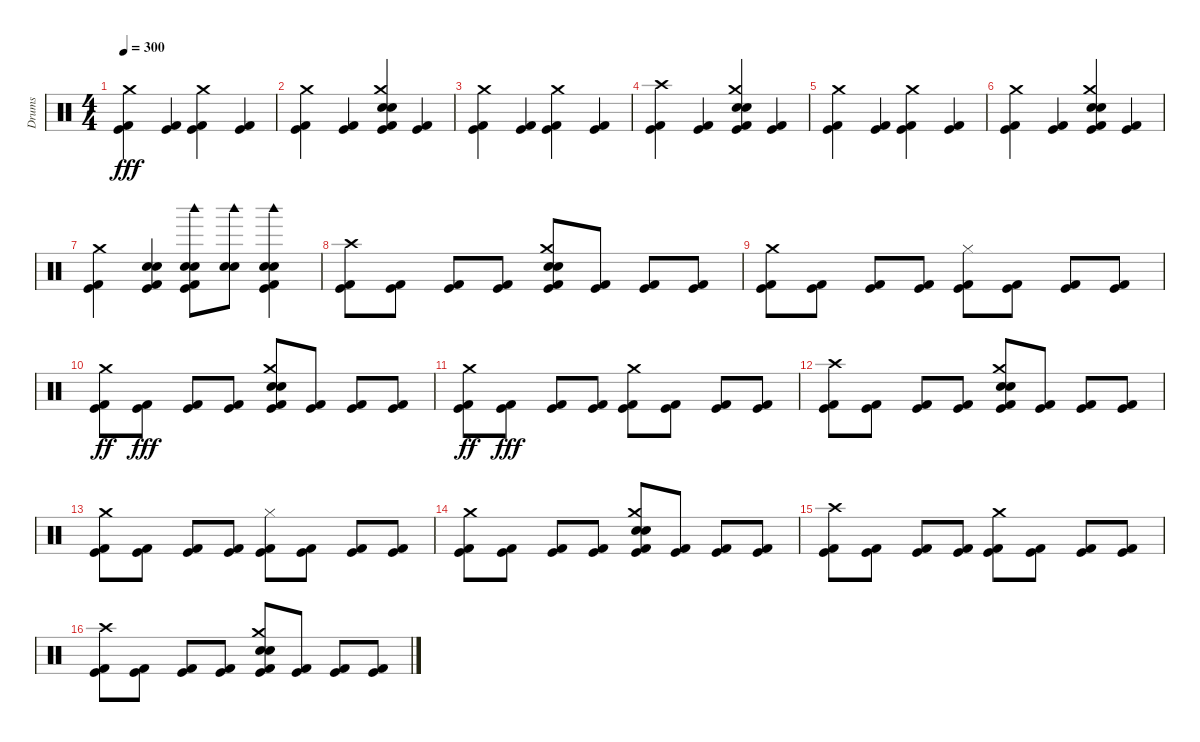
\track ("Drums" "Drums") {instrument percussion}
\staff {score}
\articulation defaults
\ts (4 4)
\tempo 300
\clef neutral
\ks c
("Kick (hit) 2" "Kick (hit)" "Crash medium (hit)").4{dy fff} ("Kick (hit) 2" "Kick (hit)").4 ("Kick (hit) 2" "Kick (hit)" "Crash medium (hit)").4 ("Kick (hit) 2" "Kick (hit)").4 |
("Kick (hit) 2" "Crash medium (hit)" "Kick (hit)").4 ("Kick (hit) 2" "Kick (hit)").4 ("Kick (hit) 2" "Electric Snare (hit)" "Snare (hit) 2" "Crash medium (hit)" "Kick (hit)").4 ("Kick (hit) 2" "Kick (hit)").4 |
("Kick (hit) 2" "Kick (hit)" "Crash medium (hit)").4 ("Kick (hit) 2" "Kick (hit)").4 ("Kick (hit) 2" "Kick (hit)" "Crash medium (hit)").4 ("Kick (hit) 2" "Kick (hit)").4 |
("Kick (hit) 2" "Crash high (hit)" "Kick (hit)").4 ("Kick (hit) 2" "Kick (hit)").4 ("Kick (hit) 2" "Electric Snare (hit)" "Crash medium (hit)" "Snare (hit) 2" "Kick (hit)").4 ("Kick (hit) 2" "Kick (hit)").4 |
("Kick (hit) 2" "Crash medium (hit)" "Kick (hit)").4 ("Kick (hit) 2" "Kick (hit)").4 ("Kick (hit) 2" "Crash medium (hit)" "Kick (hit)").4 ("Kick (hit) 2" "Kick (hit)").4 |
("Kick (hit) 2" "Kick (hit)" "Crash medium (hit)").4 ("Kick (hit) 2" "Kick (hit)").4 ("Kick (hit) 2" "Snare (hit) 2" "Electric Snare (hit)" "Crash medium (hit)" "Kick (hit)").4 ("Kick (hit) 2" "Kick (hit)").4 |
("Kick (hit) 2" "Kick (hit)" "Crash medium (hit)").4 ("Kick (hit) 2" "Electric Snare (hit)" "Snare (hit) 2" "Kick (hit)").4 ("Kick (hit) 2" "Woodblock high (hit)" "Snare (hit) 2" "Electric Snare (hit)" "Kick (hit)").8 ("Woodblock high (hit)" "Snare (hit) 2" "Electric Snare (hit)").8 ("Kick (hit) 2" "Woodblock high (hit)" "Snare (hit) 2" "Electric Snare (hit)" "Kick (hit)").4 |
("Kick (hit) 2" "Kick (hit)" "Crash high (hit)").8 ("Kick (hit) 2" "Kick (hit)").8 ("Kick (hit) 2" "Kick (hit)").8 ("Kick (hit) 2" "Kick (hit)").8 ("Kick (hit) 2" "Snare (hit) 2" "Electric Snare (hit)" "Crash medium (hit)" "Kick (hit)").8 ("Kick (hit) 2" "Kick (hit)").8 ("Kick (hit) 2" "Kick (hit)").8 ("Kick (hit) 2" "Kick (hit)").8 |
("Kick (hit) 2" "Crash medium (hit)" "Kick (hit)").8 ("Kick (hit) 2" "Kick (hit)").8 ("Kick (hit) 2" "Kick (hit)").8 ("Kick (hit) 2" "Kick (hit)").8 ("Kick (hit) 2" "Kick (hit)" "Hi-Hat (closed)").8 ("Kick (hit) 2" "Kick (hit)").8 ("Kick (hit) 2" "Kick (hit)").8 ("Kick (hit) 2" "Kick (hit)").8 |
("Kick (hit) 2" "Kick (hit)" "Crash medium (hit)").8{dy ff} ("Kick (hit) 2" "Kick (hit)").8{dy fff} ("Kick (hit) 2" "Kick (hit)").8 ("Kick (hit) 2" "Kick (hit)").8 ("Kick (hit) 2" "Crash medium (hit)" "Snare (hit) 2" "Electric Snare (hit)" "Kick (hit)").8 ("Kick (hit) 2" "Kick (hit)").8 ("Kick (hit) 2" "Kick (hit)").8 ("Kick (hit) 2" "Kick (hit)").8 |
("Kick (hit) 2" "Kick (hit)" "Crash medium (hit)").8{dy ff} ("Kick (hit) 2" "Kick (hit)").8{dy fff} ("Kick (hit) 2" "Kick (hit)").8 ("Kick (hit) 2" "Kick (hit)").8 ("Kick (hit) 2" "Crash medium (hit)" "Kick (hit)").8 ("Kick (hit) 2" "Kick (hit)").8 ("Kick (hit) 2" "Kick (hit)").8 ("Kick (hit) 2" "Kick (hit)").8 |
("Kick (hit) 2" "Kick (hit)" "Crash high (hit)").8 ("Kick (hit) 2" "Kick (hit)").8 ("Kick (hit) 2" "Kick (hit)").8 ("Kick (hit) 2" "Kick (hit)").8 ("Kick (hit) 2" "Snare (hit) 2" "Crash medium (hit)" "Electric Snare (hit)" "Kick (hit)").8 ("Kick (hit) 2" "Kick (hit)").8 ("Kick (hit) 2" "Kick (hit)").8 ("Kick (hit) 2" "Kick (hit)").8 |
("Kick (hit) 2" "Crash medium (hit)" "Kick (hit)").8 ("Kick (hit) 2" "Kick (hit)").8 ("Kick (hit) 2" "Kick (hit)").8 ("Kick (hit) 2" "Kick (hit)").8 ("Kick (hit) 2" "Kick (hit)" "Hi-Hat (closed)").8 ("Kick (hit) 2" "Kick (hit)").8 ("Kick (hit) 2" "Kick (hit)").8 ("Kick (hit) 2" "Kick (hit)").8 |
("Kick (hit) 2" "Crash medium (hit)" "Kick (hit)").8 ("Kick (hit) 2" "Kick (hit)").8 ("Kick (hit) 2" "Kick (hit)").8 ("Kick (hit) 2" "Kick (hit)").8 ("Kick (hit) 2" "Crash medium (hit)" "Electric Snare (hit)" "Snare (hit) 2" "Kick (hit)").8 ("Kick (hit) 2" "Kick (hit)").8 ("Kick (hit) 2" "Kick (hit)").8 ("Kick (hit) 2" "Kick (hit)").8 |
("Kick (hit) 2" "Kick (hit)" "Crash high (hit)").8 ("Kick (hit) 2" "Kick (hit)").8 ("Kick (hit) 2" "Kick (hit)").8 ("Kick (hit) 2" "Kick (hit)").8 ("Kick (hit) 2" "Crash medium (hit)" "Kick (hit)").8 ("Kick (hit) 2" "Kick (hit)").8 ("Kick (hit) 2" "Kick (hit)").8 ("Kick (hit) 2" "Kick (hit)").8 |
("Kick (hit) 2" "Crash high (hit)" "Kick (hit)").8 ("Kick (hit) 2" "Kick (hit)").8 ("Kick (hit) 2" "Kick (hit)").8 ("Kick (hit) 2" "Kick (hit)").8 ("Kick (hit) 2" "Snare (hit) 2" "Electric Snare (hit)" "Crash medium (hit)" "Kick (hit)").8 ("Kick (hit) 2" "Kick (hit)").8 ("Kick (hit) 2" "Kick (hit)").8 ("Kick (hit) 2" "Kick (hit)").8
